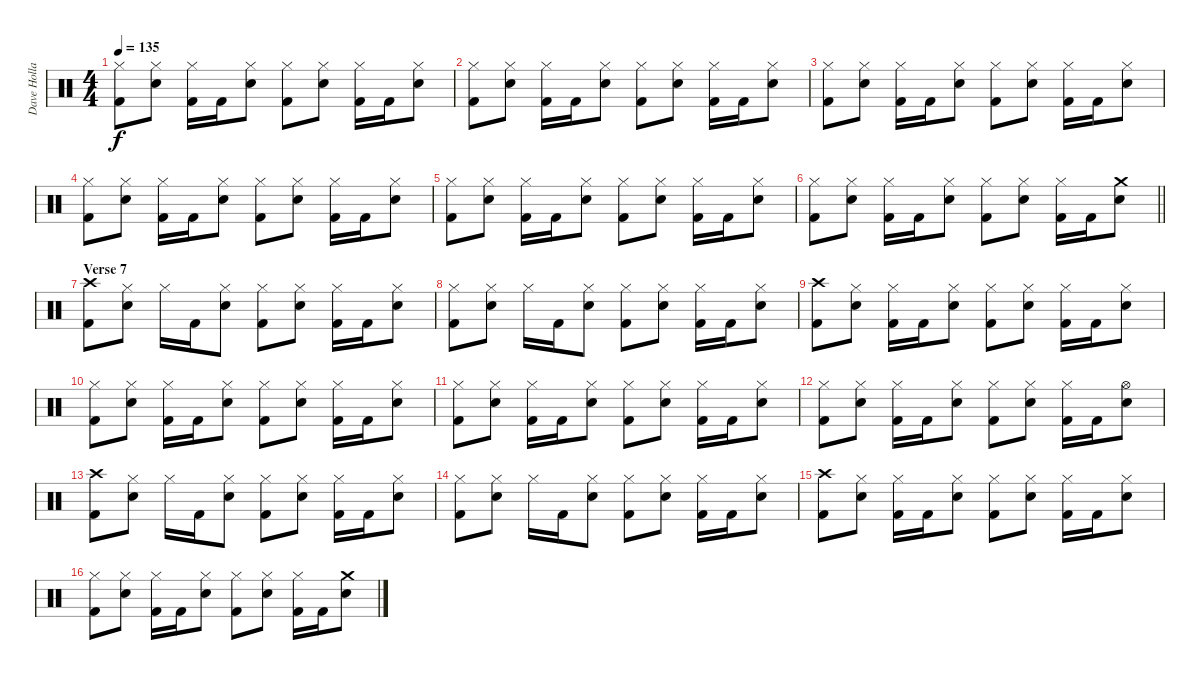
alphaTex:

\track ("Dave Holland" "Dave Holla") {instrument percussion}
\staff {score}
\articulation defaults
\ts (4 4)
\tempo 135
\clef neutral
\ks c
("Hi-Hat (closed)" "Kick (hit) 2").8{dy f} ("Hi-Hat (closed)" "Snare (hit) 2").8 ("Hi-Hat (closed)" "Kick (hit) 2").16 "Kick (hit) 2".16 ("Hi-Hat (closed)" "Snare (hit) 2").8 ("Hi-Hat (closed)" "Kick (hit) 2").8 ("Hi-Hat (closed)" "Snare (hit) 2").8 ("Hi-Hat (closed)" "Kick (hit) 2").16 "Kick (hit) 2".16 ("Hi-Hat (closed)" "Snare (hit) 2").8 |
("Hi-Hat (closed)" "Kick (hit) 2").8 ("Hi-Hat (closed)" "Snare (hit) 2").8 ("Hi-Hat (closed)" "Kick (hit) 2").16 "Kick (hit) 2".16 ("Hi-Hat (closed)" "Snare (hit) 2").8 ("Hi-Hat (closed)" "Kick (hit) 2").8 ("Hi-Hat (closed)" "Snare (hit) 2").8 ("Hi-Hat (closed)" "Kick (hit) 2").16 "Kick (hit) 2".16 ("Hi-Hat (closed)" "Snare (hit) 2").8 |
("Hi-Hat (closed)" "Kick (hit) 2").8 ("Hi-Hat (closed)" "Snare (hit) 2").8 ("Hi-Hat (closed)" "Kick (hit) 2").16 "Kick (hit) 2".16 ("Hi-Hat (closed)" "Snare (hit) 2").8 ("Hi-Hat (closed)" "Kick (hit) 2").8 ("Hi-Hat (closed)" "Snare (hit) 2").8 ("Hi-Hat (closed)" "Kick (hit) 2").16 "Kick (hit) 2".16 ("Hi-Hat (closed)" "Snare (hit) 2").8 |
("Hi-Hat (closed)" "Kick (hit) 2").8 ("Hi-Hat (closed)" "Snare (hit) 2").8 ("Hi-Hat (closed)" "Kick (hit) 2").16 "Kick (hit) 2".16 ("Hi-Hat (closed)" "Snare (hit) 2").8 ("Hi-Hat (closed)" "Kick (hit) 2").8 ("Hi-Hat (closed)" "Snare (hit) 2").8 ("Hi-Hat (closed)" "Kick (hit) 2").16 "Kick (hit) 2".16 ("Hi-Hat (closed)" "Snare (hit) 2").8 |
("Hi-Hat (closed)" "Kick (hit) 2").8 ("Hi-Hat (closed)" "Snare (hit) 2").8 ("Hi-Hat (closed)" "Kick (hit) 2").16 "Kick (hit) 2".16 ("Hi-Hat (closed)" "Snare (hit) 2").8 ("Hi-Hat (closed)" "Kick (hit) 2").8 ("Hi-Hat (closed)" "Snare (hit) 2").8 ("Hi-Hat (closed)" "Kick (hit) 2").16 "Kick (hit) 2".16 ("Hi-Hat (closed)" "Snare (hit) 2").8 |
\barLineRight lightlight
("Hi-Hat (closed)" "Kick (hit) 2").8 ("Hi-Hat (closed)" "Snare (hit) 2").8 ("Hi-Hat (closed)" "Kick (hit) 2").16 "Kick (hit) 2".16 ("Hi-Hat (closed)" "Snare (hit) 2").8 ("Hi-Hat (closed)" "Kick (hit) 2").8 ("Hi-Hat (closed)" "Snare (hit) 2").8 ("Hi-Hat (closed)" "Kick (hit) 2").16 "Kick (hit) 2".16 ("Crash medium (hit)" "Snare (hit) 2").8 |
\section ("" "Verse 7")
("Crash high (hit)" "Kick (hit) 2").8 ("Hi-Hat (closed)" "Snare (hit) 2").8 "Hi-Hat (closed)".16 "Kick (hit) 2".16 ("Hi-Hat (closed)" "Snare (hit) 2").8 ("Hi-Hat (closed)" "Kick (hit) 2").8 ("Hi-Hat (closed)" "Snare (hit) 2").8 ("Hi-Hat (closed)" "Kick (hit) 2").16 "Kick (hit) 2".16 ("Hi-Hat (closed)" "Snare (hit) 2").8 |
("Hi-Hat (closed)" "Kick (hit) 2").8 ("Hi-Hat (closed)" "Snare (hit) 2").8 "Hi-Hat (closed)".16 "Kick (hit) 2".16 ("Hi-Hat (closed)" "Snare (hit) 2").8 ("Hi-Hat (closed)" "Kick (hit) 2").8 ("Hi-Hat (closed)" "Snare (hit) 2").8 ("Hi-Hat (closed)" "Kick (hit) 2").16 "Kick (hit) 2".16 ("Hi-Hat (closed)" "Snare (hit) 2").8 |
("Crash high (hit)" "Kick (hit) 2").8 ("Hi-Hat (closed)" "Snare (hit) 2").8 ("Hi-Hat (closed)" "Kick (hit) 2").16 "Kick (hit) 2".16 ("Hi-Hat (closed)" "Snare (hit) 2").8 ("Hi-Hat (closed)" "Kick (hit) 2").8 ("Hi-Hat (closed)" "Snare (hit) 2").8 ("Hi-Hat (closed)" "Kick (hit) 2").16 "Kick (hit) 2".16 ("Hi-Hat (closed)" "Snare (hit) 2").8 |
("Hi-Hat (closed)" "Kick (hit) 2").8 ("Hi-Hat (closed)" "Snare (hit) 2").8 ("Hi-Hat (closed)" "Kick (hit) 2").16 "Kick (hit) 2".16 ("Hi-Hat (closed)" "Snare (hit) 2").8 ("Hi-Hat (closed)" "Kick (hit) 2").8 ("Hi-Hat (closed)" "Snare (hit) 2").8 ("Hi-Hat (closed)" "Kick (hit) 2").16 "Kick (hit) 2".16 ("Hi-Hat (closed)" "Snare (hit) 2").8 |
("Hi-Hat (closed)" "Kick (hit) 2").8 ("Hi-Hat (closed)" "Snare (hit) 2").8 ("Hi-Hat (closed)" "Kick (hit) 2").16 "Kick (hit) 2".16 ("Hi-Hat (closed)" "Snare (hit) 2").8 ("Hi-Hat (closed)" "Kick (hit) 2").8 ("Hi-Hat (closed)" "Snare (hit) 2").8 ("Hi-Hat (closed)" "Kick (hit) 2").16 "Kick (hit) 2".16 ("Hi-Hat (closed)" "Snare (hit) 2").8 |
("Hi-Hat (closed)" "Kick (hit) 2").8 ("Hi-Hat (closed)" "Snare (hit) 2").8 ("Hi-Hat (closed)" "Kick (hit) 2").16 "Kick (hit) 2".16 ("Hi-Hat (closed)" "Snare (hit) 2").8 ("Hi-Hat (closed)" "Kick (hit) 2").8 ("Hi-Hat (closed)" "Snare (hit) 2").8 ("Hi-Hat (closed)" "Kick (hit) 2").16 "Kick (hit) 2".16 ("Hi-Hat (open)" "Snare (hit) 2").8 |
("Crash high (hit)" "Kick (hit) 2").8 ("Hi-Hat (closed)" "Snare (hit) 2").8 "Hi-Hat (closed)".16 "Kick (hit) 2".16 ("Hi-Hat (closed)" "Snare (hit) 2").8 ("Hi-Hat (closed)" "Kick (hit) 2").8 ("Hi-Hat (closed)" "Snare (hit) 2").8 ("Hi-Hat (closed)" "Kick (hit) 2").16 "Kick (hit) 2".16 ("Hi-Hat (closed)" "Snare (hit) 2").8 |
("Hi-Hat (closed)" "Kick (hit) 2").8 ("Hi-Hat (closed)" "Snare (hit) 2").8 "Hi-Hat (closed)".16 "Kick (hit) 2".16 ("Hi-Hat (closed)" "Snare (hit) 2").8 ("Hi-Hat (closed)" "Kick (hit) 2").8 ("Hi-Hat (closed)" "Snare (hit) 2").8 ("Hi-Hat (closed)" "Kick (hit) 2").16 "Kick (hit) 2".16 ("Hi-Hat (closed)" "Snare (hit) 2").8 |
("Crash high (hit)" "Kick (hit) 2").8 ("Hi-Hat (closed)" "Snare (hit) 2").8 ("Hi-Hat (closed)" "Kick (hit) 2").16 "Kick (hit) 2".16 ("Hi-Hat (closed)" "Snare (hit) 2").8 ("Hi-Hat (closed)" "Kick (hit) 2").8 ("Hi-Hat (closed)" "Snare (hit) 2").8 ("Hi-Hat (closed)" "Kick (hit) 2").16 "Kick (hit) 2".16 ("Hi-Hat (closed)" "Snare (hit) 2").8 |
("Hi-Hat (closed)" "Kick (hit) 2").8 ("Hi-Hat (closed)" "Snare (hit) 2").8 ("Hi-Hat (closed)" "Kick (hit) 2").16 "Kick (hit) 2".16 ("Hi-Hat (closed)" "Snare (hit) 2").8 ("Hi-Hat (closed)" "Kick (hit) 2").8 ("Hi-Hat (closed)" "Snare (hit) 2").8 ("Hi-Hat (closed)" "Kick (hit) 2").16 "Kick (hit) 2".16 ("Crash medium (hit)" "Snare (hit) 2").8
